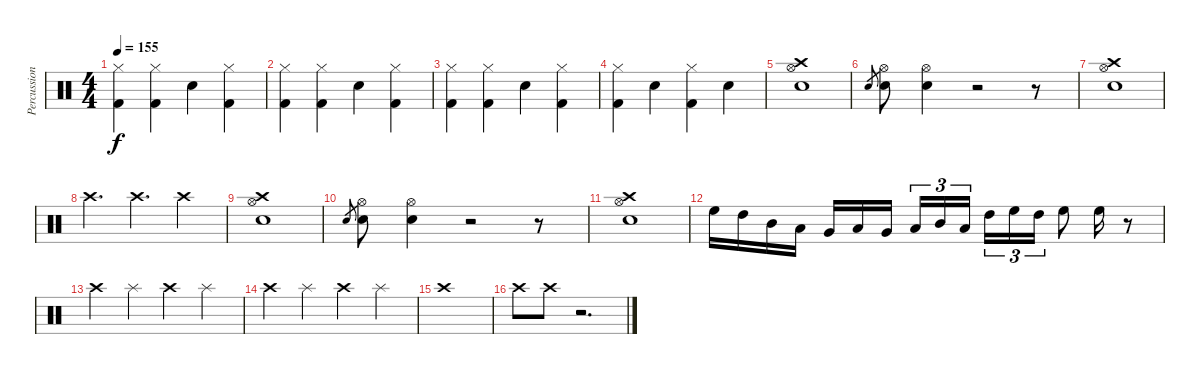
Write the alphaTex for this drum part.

\track ("Percussion" "Percussion") {instrument percussion}
\staff {score}
\articulation defaults
\ts (4 4)
\tempo 155
\clef neutral
\ks c
("Hi-Hat (closed)" "Kick (hit) 2").4{dy f} ("Hi-Hat (closed)" "Kick (hit) 2").4 "Electric Snare (hit)".4 ("Hi-Hat (closed)" "Kick (hit) 2").4 |
("Hi-Hat (closed)" "Kick (hit) 2").4 ("Hi-Hat (closed)" "Kick (hit) 2").4 "Electric Snare (hit)".4 ("Hi-Hat (closed)" "Kick (hit) 2").4 |
("Hi-Hat (closed)" "Kick (hit) 2").4 ("Hi-Hat (closed)" "Kick (hit) 2").4 "Electric Snare (hit)".4 ("Hi-Hat (closed)" "Kick (hit) 2").4 |
("Hi-Hat (closed)" "Kick (hit) 2").4 "Electric Snare (hit)".4 ("Hi-Hat (closed)" "Kick (hit) 2").4 "Electric Snare (hit)".4 |
("Hi-Hat (open)" "Crash high (hit)" "Electric Snare (hit)").1 |
"Electric Snare (hit)".8{gr} ("Hi-Hat (open)" "Electric Snare (hit)").8 ("Hi-Hat (open)" "Electric Snare (hit)").4 r.2 r.8 |
("Hi-Hat (open)" "Crash high (hit)" "Electric Snare (hit)").1 |
"Crash high (hit)".4{d} "Crash high (hit)".4{d} "Crash high (hit)".4 |
("Hi-Hat (open)" "Crash high (hit)" "Electric Snare (hit)").1 |
"Electric Snare (hit)".8{gr} ("Hi-Hat (open)" "Electric Snare (hit)").8 ("Hi-Hat (open)" "Electric Snare (hit)").4 r.2 r.8 |
("Hi-Hat (open)" "Crash high (hit)" "Electric Snare (hit)").1 |
"High Floor Tom (hit)".16 "High Tom (hit)".16 "Mid Tom (hit)".16 "Low Tom (hit)".16 "Very Low Tom (hit)".16 "Low Floor Tom (hit)".16 "Very Low Tom (hit)".16{beam splitsecondary} "Low Tom (hit)".16{tu (3 2)} "Mid Tom (hit)".16{tu (3 2)} "Low Tom (hit)".16{tu (3 2) beam splitsecondary} "High Tom (hit)".16{tu (3 2)} "High Floor Tom (hit)".16{tu (3 2)} "High Tom (hit)".16{tu (3 2)} "High Floor Tom (hit)".8 "High Floor Tom (hit)".16 r.8 |
"Crash high (hit)".4 "Splash (hit)".4 "Crash high (hit)".4 "Splash (hit)".4 |
"Crash high (hit)".4 "Splash (hit)".4 "Crash high (hit)".4 "Splash (hit)".4 |
"Crash high (hit)".1 |
"Crash high (hit)".8 "Crash high (hit)".8 r.2{d}
